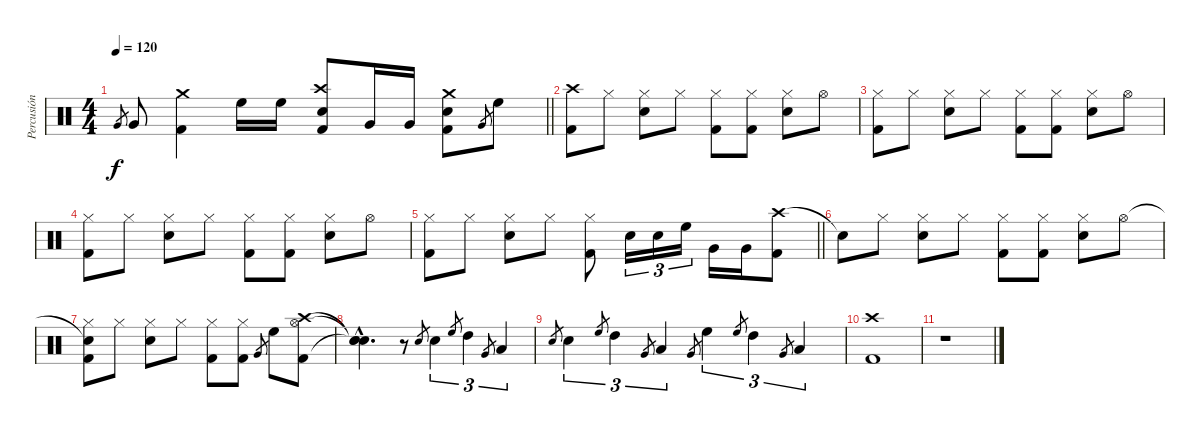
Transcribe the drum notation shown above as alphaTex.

\track ("Percusión" "Percusión") {instrument percussion}
\staff {score}
\articulation defaults
\ts (4 4)
\tempo 120
\clef neutral
\barLineRight lightlight
\ks c "Very Low Tom (hit)".8{gr dy f} "Very Low Tom (hit)".8
("Crash medium (hit)" "Kick (hit) 2").4 "High Floor Tom (hit)".16 "High Floor Tom (hit)".16 ("Crash high (hit)" "Electric Snare (hit)" "Kick (hit) 2").8 "Very Low Tom (hit)".16 "Very Low Tom (hit)".16 ("Crash medium (hit)" "Electric Snare (hit)" "Kick (hit) 2").8 "Very Low Tom (hit)".8{gr} "High Floor Tom (hit)".8 |
("Crash high (hit)" "Kick (hit) 2").8 "Hi-Hat (closed)".8 ("Hi-Hat (closed)" "Electric Snare (hit)").8 "Hi-Hat (closed)".8 ("Hi-Hat (closed)" "Kick (hit) 2").8 ("Hi-Hat (closed)" "Kick (hit) 2").8 ("Hi-Hat (closed)" "Electric Snare (hit)").8 "Hi-Hat (open)".8 |
("Hi-Hat (closed)" "Kick (hit) 2").8 "Hi-Hat (closed)".8 ("Hi-Hat (closed)" "Electric Snare (hit)").8 "Hi-Hat (closed)".8 ("Hi-Hat (closed)" "Kick (hit) 2").8 ("Hi-Hat (closed)" "Kick (hit) 2").8 ("Hi-Hat (closed)" "Electric Snare (hit)").8 "Hi-Hat (open)".8 |
("Hi-Hat (closed)" "Kick (hit) 2").8 "Hi-Hat (closed)".8 ("Hi-Hat (closed)" "Electric Snare (hit)").8 "Hi-Hat (closed)".8 ("Hi-Hat (closed)" "Kick (hit) 2").8 ("Hi-Hat (closed)" "Kick (hit) 2").8 ("Hi-Hat (closed)" "Electric Snare (hit)").8 "Hi-Hat (open)".8 |
\barLineRight lightlight
("Hi-Hat (closed)" "Kick (hit) 2").8 "Hi-Hat (closed)".8 ("Hi-Hat (closed)" "Electric Snare (hit)").8 "Hi-Hat (closed)".8 ("Hi-Hat (closed)" "Kick (hit) 2").8 "Snare (hit) 2".16{tu (3 2)} "Snare (hit) 2".16{tu (3 2)} "High Floor Tom (hit)".16{tu (3 2)} "Very Low Tom (hit)".16 "Very Low Tom (hit)".16 ("Crash high (hit)" "Kick (hit) 2").8 |
"Snare (hit)"{t}.8 "Hi-Hat (closed)".8 ("Hi-Hat (closed)" "Electric Snare (hit)").8 "Hi-Hat (closed)".8 ("Hi-Hat (closed)" "Kick (hit) 2").8 ("Hi-Hat (closed)" "Kick (hit) 2").8 ("Hi-Hat (closed)" "Electric Snare (hit)").8 "Hi-Hat (open)".8 |
("Snare (hit)"{t} "Hi-Hat (closed)" "Kick (hit) 2").8 "Hi-Hat (closed)".8 ("Hi-Hat (closed)" "Electric Snare (hit)").8 "Hi-Hat (closed)".8 ("Hi-Hat (closed)" "Kick (hit) 2").8 ("Hi-Hat (closed)" "Kick (hit) 2").8 "Very Low Tom (hit)".8{gr} "High Floor Tom (hit)".8 ("Crash high (hit)" "Hi-Hat (open)" "Kick (hit) 2").8 |
("Snare (hit)"{hac t} "Snare (hit)"{hac t} "Snare (hit)"{hac t}).4{d} r.8 "Snare (hit) 2".8{gr} "Snare (hit) 2".4{tu (3 2)} "High Floor Tom (hit)".8{gr} "High Tom (hit)".4{tu (3 2)} "Very Low Tom (hit)".8{gr} "Low Tom (hit)".4{tu (3 2)} |
"Snare (hit) 2".8{gr} "Snare (hit) 2".4{tu (3 2)} "High Floor Tom (hit)".8{gr} "High Tom (hit)".4{tu (3 2)} "Very Low Tom (hit)".8{gr} "Low Tom (hit)".4{tu (3 2)} "Very Low Tom (hit)".8{gr} "High Floor Tom (hit)".4{tu (3 2)} "High Floor Tom (hit)".8{gr} "High Tom (hit)".4{tu (3 2)} "Very Low Tom (hit)".8{gr} "Low Tom (hit)".4{tu (3 2)} |
("Crash high (hit)" "Kick (hit) 2").1 |
r.1
